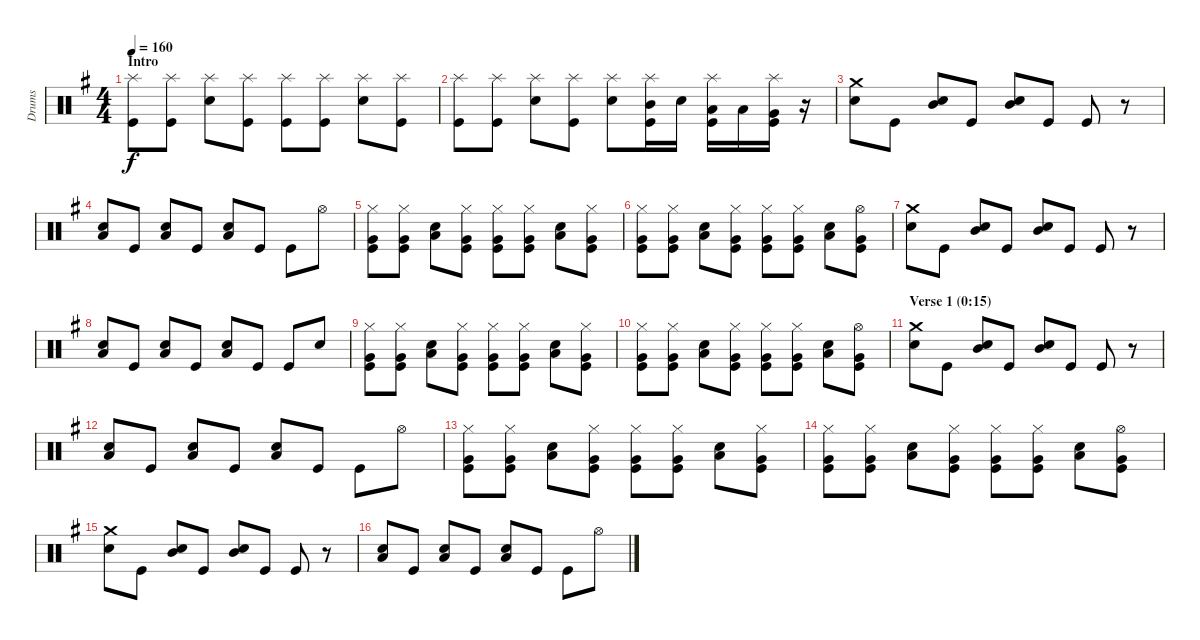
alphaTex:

\track ("Drums" "Drums") {instrument percussion}
\staff {score}
\articulation defaults
\ts (4 4)
\section ("" "Intro")
\tempo 160
\clef neutral
\ks g
("Splash (hit)" "Kick (hit)").8{dy f} ("Splash (hit)" "Kick (hit)").8 ("Splash (hit)" "Snare (hit) 2").8 ("Splash (hit)" "Kick (hit)").8 ("Splash (hit)" "Kick (hit)").8 ("Splash (hit)" "Kick (hit)").8 ("Splash (hit)" "Snare (hit) 2").8 ("Splash (hit)" "Kick (hit)").8 |
("Splash (hit)" "Kick (hit)").8 ("Splash (hit)" "Kick (hit)").8 ("Splash (hit)" "Snare (hit) 2").8 ("Splash (hit)" "Kick (hit)").8 ("Splash (hit)" "Snare (hit) 2").8 ("Splash (hit)" "Mid Tom (hit)" "Kick (hit)").16 "Snare (hit) 2".16 ("Splash (hit)" "Low Tom (hit)" "Kick (hit)").16 "Low Tom (hit)".16 ("Splash (hit)" "Very Low Tom (hit)" "Kick (hit)").16 r.16 |
("Crash medium (hit)" "Snare (hit) 2").8 "Kick (hit)".8 ("Snare (hit) 2" "Mid Tom (hit)").8 "Kick (hit)".8 ("Snare (hit) 2" "Mid Tom (hit)").8 "Kick (hit)".8 "Kick (hit)".8 r.8 |
("Snare (hit) 2" "Low Tom (hit)").8 "Kick (hit)".8 ("Snare (hit) 2" "Low Tom (hit)").8 "Kick (hit)".8 ("Snare (hit) 2" "Low Tom (hit)").8 "Kick (hit)".8 "Kick (hit)".8 "Hi-Hat (open)".8 |
("Hi-Hat (closed)" "Very Low Tom (hit)" "Kick (hit)").8 ("Hi-Hat (closed)" "Very Low Tom (hit)" "Kick (hit)").8 ("Snare (hit) 2" "Low Tom (hit)").8 ("Hi-Hat (closed)" "Very Low Tom (hit)" "Kick (hit)").8 ("Hi-Hat (closed)" "Very Low Tom (hit)" "Kick (hit)").8 ("Hi-Hat (closed)" "Very Low Tom (hit)" "Kick (hit)").8 ("Snare (hit) 2" "Low Tom (hit)").8 ("Hi-Hat (closed)" "Very Low Tom (hit)" "Kick (hit)").8 |
("Hi-Hat (closed)" "Very Low Tom (hit)" "Kick (hit)").8 ("Hi-Hat (closed)" "Very Low Tom (hit)" "Kick (hit)").8 ("Snare (hit) 2" "Low Tom (hit)").8 ("Hi-Hat (closed)" "Very Low Tom (hit)" "Kick (hit)").8 ("Hi-Hat (closed)" "Very Low Tom (hit)" "Kick (hit)").8 ("Hi-Hat (closed)" "Very Low Tom (hit)" "Kick (hit)").8 ("Snare (hit) 2" "Low Tom (hit)").8 ("Hi-Hat (open)" "Very Low Tom (hit)" "Kick (hit)").8 |
("Crash medium (hit)" "Snare (hit) 2").8 "Kick (hit)".8 ("Snare (hit) 2" "Mid Tom (hit)").8 "Kick (hit)".8 ("Snare (hit) 2" "Mid Tom (hit)").8 "Kick (hit)".8 "Kick (hit)".8 r.8 |
("Snare (hit) 2" "Low Tom (hit)").8 "Kick (hit)".8 ("Snare (hit) 2" "Low Tom (hit)").8 "Kick (hit)".8 ("Snare (hit) 2" "Low Tom (hit)").8 "Kick (hit)".8 "Kick (hit)".8 "Snare (hit) 2".8 |
("Hi-Hat (closed)" "Very Low Tom (hit)" "Kick (hit)").8 ("Hi-Hat (closed)" "Very Low Tom (hit)" "Kick (hit)").8 ("Snare (hit) 2" "Low Tom (hit)").8 ("Hi-Hat (closed)" "Very Low Tom (hit)" "Kick (hit)").8 ("Hi-Hat (closed)" "Very Low Tom (hit)" "Kick (hit)").8 ("Hi-Hat (closed)" "Very Low Tom (hit)" "Kick (hit)").8 ("Snare (hit) 2" "Low Tom (hit)").8 ("Hi-Hat (closed)" "Very Low Tom (hit)" "Kick (hit)").8 |
("Hi-Hat (closed)" "Very Low Tom (hit)" "Kick (hit)").8 ("Hi-Hat (closed)" "Very Low Tom (hit)" "Kick (hit)").8 ("Snare (hit) 2" "Low Tom (hit)").8 ("Hi-Hat (closed)" "Very Low Tom (hit)" "Kick (hit)").8 ("Hi-Hat (closed)" "Very Low Tom (hit)" "Kick (hit)").8 ("Hi-Hat (closed)" "Very Low Tom (hit)" "Kick (hit)").8 ("Snare (hit) 2" "Low Tom (hit)").8 ("Hi-Hat (open)" "Very Low Tom (hit)" "Kick (hit)").8 |
\section ("" "Verse 1 (0:15)")
("Crash medium (hit)" "Snare (hit) 2").8 "Kick (hit)".8 ("Snare (hit) 2" "Mid Tom (hit)").8 "Kick (hit)".8 ("Snare (hit) 2" "Mid Tom (hit)").8 "Kick (hit)".8 "Kick (hit)".8 r.8 |
("Snare (hit) 2" "Low Tom (hit)").8 "Kick (hit)".8 ("Snare (hit) 2" "Low Tom (hit)").8 "Kick (hit)".8 ("Snare (hit) 2" "Low Tom (hit)").8 "Kick (hit)".8 "Kick (hit)".8 "Hi-Hat (open)".8 |
("Hi-Hat (closed)" "Very Low Tom (hit)" "Kick (hit)").8 ("Hi-Hat (closed)" "Very Low Tom (hit)" "Kick (hit)").8 ("Snare (hit) 2" "Low Tom (hit)").8 ("Hi-Hat (closed)" "Very Low Tom (hit)" "Kick (hit)").8 ("Hi-Hat (closed)" "Very Low Tom (hit)" "Kick (hit)").8 ("Hi-Hat (closed)" "Very Low Tom (hit)" "Kick (hit)").8 ("Snare (hit) 2" "Low Tom (hit)").8 ("Hi-Hat (closed)" "Very Low Tom (hit)" "Kick (hit)").8 |
("Hi-Hat (closed)" "Very Low Tom (hit)" "Kick (hit)").8 ("Hi-Hat (closed)" "Very Low Tom (hit)" "Kick (hit)").8 ("Snare (hit) 2" "Low Tom (hit)").8 ("Hi-Hat (closed)" "Very Low Tom (hit)" "Kick (hit)").8 ("Hi-Hat (closed)" "Very Low Tom (hit)" "Kick (hit)").8 ("Hi-Hat (closed)" "Very Low Tom (hit)" "Kick (hit)").8 ("Snare (hit) 2" "Low Tom (hit)").8 ("Hi-Hat (open)" "Very Low Tom (hit)" "Kick (hit)").8 |
("Crash medium (hit)" "Snare (hit) 2").8 "Kick (hit)".8 ("Snare (hit) 2" "Mid Tom (hit)").8 "Kick (hit)".8 ("Snare (hit) 2" "Mid Tom (hit)").8 "Kick (hit)".8 "Kick (hit)".8 r.8 |
("Snare (hit) 2" "Low Tom (hit)").8 "Kick (hit)".8 ("Snare (hit) 2" "Low Tom (hit)").8 "Kick (hit)".8 ("Snare (hit) 2" "Low Tom (hit)").8 "Kick (hit)".8 "Kick (hit)".8 "Hi-Hat (open)".8
